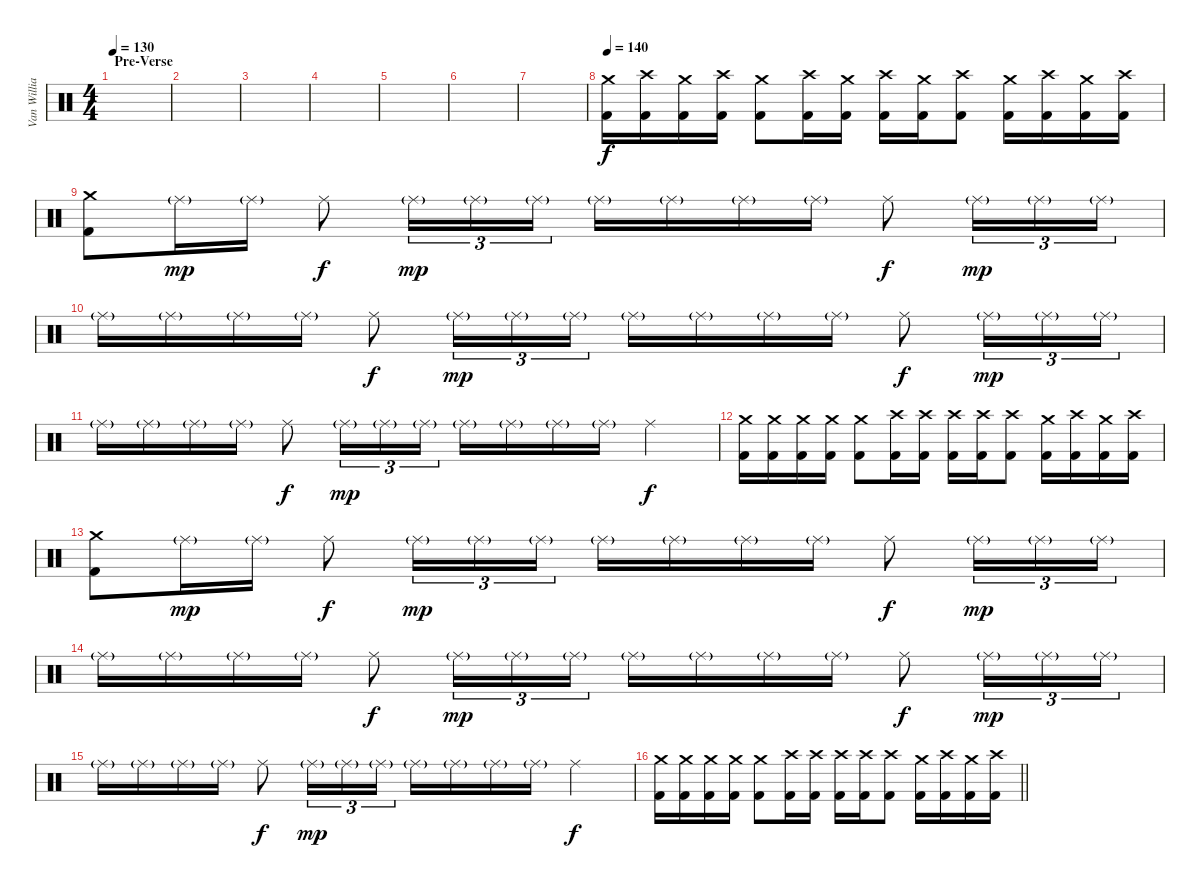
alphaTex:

\track ("Van Williams" "Van Willia") {instrument percussion}
\staff {score}
\articulation defaults
\ts (4 4)
\section ("" "Pre-Verse")
\tempo 130
\clef neutral
\ks c
|
|
|
|
|
|
|
\tempo 140
("Crash medium (hit)" "Kick (hit) 2").16 ("Crash high (hit)" "Kick (hit) 2").16 ("Crash medium (hit)" "Kick (hit) 2").16 ("Crash high (hit)" "Kick (hit) 2").16 ("Crash medium (hit)" "Kick (hit) 2").8 ("Crash high (hit)" "Kick (hit) 2").16 ("Crash medium (hit)" "Kick (hit) 2").16 ("Crash high (hit)" "Kick (hit) 2").16 ("Crash medium (hit)" "Kick (hit) 2").16 ("Crash high (hit)" "Kick (hit) 2").8 ("Crash medium (hit)" "Kick (hit) 2").16 ("Crash high (hit)" "Kick (hit) 2").16 ("Crash medium (hit)" "Kick (hit) 2").16 ("Crash high (hit)" "Kick (hit) 2").16 |
("Crash medium (hit)" "Kick (hit) 2").8 "Ride (middle)"{g}.16{dy mp} "Ride (middle)"{g}.16 "Ride (middle)".8{dy f} "Ride (middle)"{g}.16{tu (3 2) dy mp} "Ride (middle)"{g}.16{tu (3 2)} "Ride (middle)"{g}.16{tu (3 2)} "Ride (middle)"{g}.16 "Ride (middle)"{g}.16 "Ride (middle)"{g}.16 "Ride (middle)"{g}.16 "Ride (middle)".8{dy f} "Ride (middle)"{g}.16{tu (3 2) dy mp} "Ride (middle)"{g}.16{tu (3 2)} "Ride (middle)"{g}.16{tu (3 2)} |
"Ride (middle)"{g}.16 "Ride (middle)"{g}.16 "Ride (middle)"{g}.16 "Ride (middle)"{g}.16 "Ride (middle)".8{dy f} "Ride (middle)"{g}.16{tu (3 2) dy mp} "Ride (middle)"{g}.16{tu (3 2)} "Ride (middle)"{g}.16{tu (3 2)} "Ride (middle)"{g}.16 "Ride (middle)"{g}.16 "Ride (middle)"{g}.16 "Ride (middle)"{g}.16 "Ride (middle)".8{dy f} "Ride (middle)"{g}.16{tu (3 2) dy mp} "Ride (middle)"{g}.16{tu (3 2)} "Ride (middle)"{g}.16{tu (3 2)} |
"Ride (middle)"{g}.16 "Ride (middle)"{g}.16 "Ride (middle)"{g}.16 "Ride (middle)"{g}.16 "Ride (middle)".8{dy f} "Ride (middle)"{g}.16{tu (3 2) dy mp} "Ride (middle)"{g}.16{tu (3 2)} "Ride (middle)"{g}.16{tu (3 2)} "Ride (middle)"{g}.16 "Ride (middle)"{g}.16 "Ride (middle)"{g}.16 "Ride (middle)"{g}.16 "Ride (middle)".4{dy f} |
("Crash medium (hit)" "Kick (hit) 2").16 ("Crash medium (hit)" "Kick (hit) 2").16 ("Crash medium (hit)" "Kick (hit) 2").16 ("Crash medium (hit)" "Kick (hit) 2").16 ("Crash medium (hit)" "Kick (hit) 2").8 ("Crash high (hit)" "Kick (hit) 2").16 ("Crash high (hit)" "Kick (hit) 2").16 ("Crash high (hit)" "Kick (hit) 2").16 ("Crash high (hit)" "Kick (hit) 2").16 ("Crash high (hit)" "Kick (hit) 2").8 ("Crash medium (hit)" "Kick (hit) 2").16 ("Crash high (hit)" "Kick (hit) 2").16 ("Crash medium (hit)" "Kick (hit) 2").16 ("Crash high (hit)" "Kick (hit) 2").16 |
("Crash medium (hit)" "Kick (hit) 2").8 "Ride (middle)"{g}.16{dy mp} "Ride (middle)"{g}.16 "Ride (middle)".8{dy f} "Ride (middle)"{g}.16{tu (3 2) dy mp} "Ride (middle)"{g}.16{tu (3 2)} "Ride (middle)"{g}.16{tu (3 2)} "Ride (middle)"{g}.16 "Ride (middle)"{g}.16 "Ride (middle)"{g}.16 "Ride (middle)"{g}.16 "Ride (middle)".8{dy f} "Ride (middle)"{g}.16{tu (3 2) dy mp} "Ride (middle)"{g}.16{tu (3 2)} "Ride (middle)"{g}.16{tu (3 2)} |
"Ride (middle)"{g}.16 "Ride (middle)"{g}.16 "Ride (middle)"{g}.16 "Ride (middle)"{g}.16 "Ride (middle)".8{dy f} "Ride (middle)"{g}.16{tu (3 2) dy mp} "Ride (middle)"{g}.16{tu (3 2)} "Ride (middle)"{g}.16{tu (3 2)} "Ride (middle)"{g}.16 "Ride (middle)"{g}.16 "Ride (middle)"{g}.16 "Ride (middle)"{g}.16 "Ride (middle)".8{dy f} "Ride (middle)"{g}.16{tu (3 2) dy mp} "Ride (middle)"{g}.16{tu (3 2)} "Ride (middle)"{g}.16{tu (3 2)} |
"Ride (middle)"{g}.16 "Ride (middle)"{g}.16 "Ride (middle)"{g}.16 "Ride (middle)"{g}.16 "Ride (middle)".8{dy f} "Ride (middle)"{g}.16{tu (3 2) dy mp} "Ride (middle)"{g}.16{tu (3 2)} "Ride (middle)"{g}.16{tu (3 2)} "Ride (middle)"{g}.16 "Ride (middle)"{g}.16 "Ride (middle)"{g}.16 "Ride (middle)"{g}.16 "Ride (middle)".4{dy f} |
\barLineRight lightlight
("Crash medium (hit)" "Kick (hit) 2").16 ("Crash medium (hit)" "Kick (hit) 2").16 ("Crash medium (hit)" "Kick (hit) 2").16 ("Crash medium (hit)" "Kick (hit) 2").16 ("Crash medium (hit)" "Kick (hit) 2").8 ("Crash high (hit)" "Kick (hit) 2").16 ("Crash high (hit)" "Kick (hit) 2").16 ("Crash high (hit)" "Kick (hit) 2").16 ("Crash high (hit)" "Kick (hit) 2").16 ("Crash high (hit)" "Kick (hit) 2").8 ("Crash medium (hit)" "Kick (hit) 2").16 ("Crash high (hit)" "Kick (hit) 2").16 ("Crash medium (hit)" "Kick (hit) 2").16 ("Crash high (hit)" "Kick (hit) 2").16
